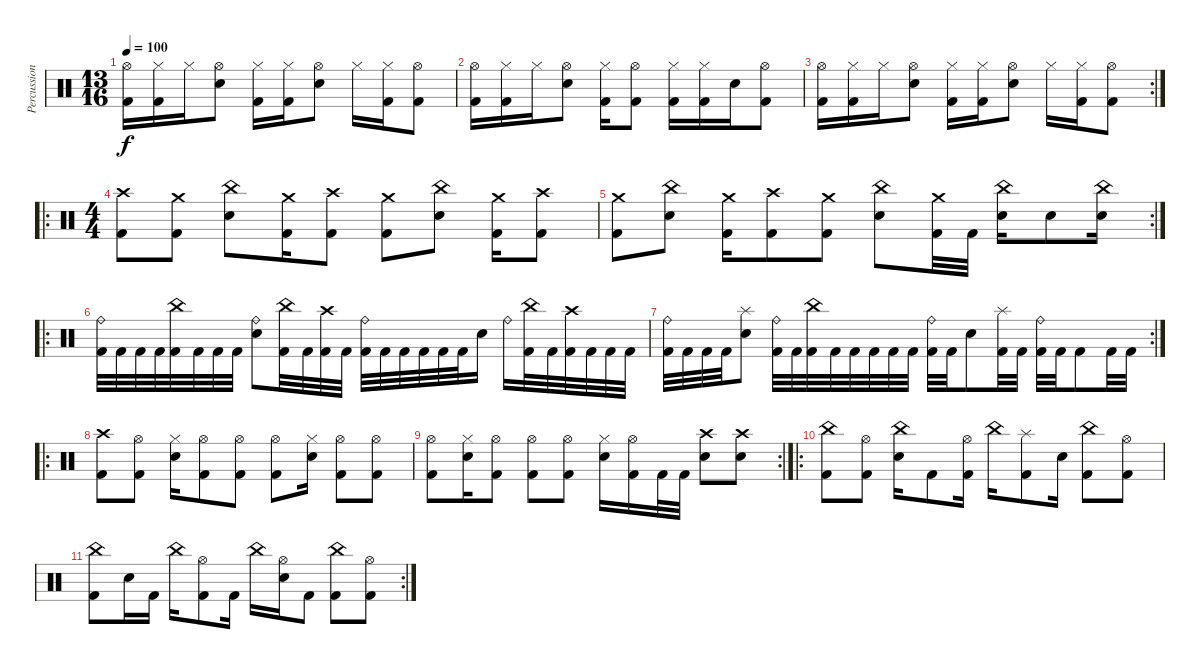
\track ("Percussions" "Percussion") {instrument percussion}
\staff {score}
\articulation defaults
\ts (13 16)
\tempo 100
\clef neutral
\ks c
("Hi-Hat (open)" "Kick (hit) 2").16{dy f} ("Hi-Hat (closed)" "Kick (hit) 2").16 "Hi-Hat (closed)".16 ("Hi-Hat (open)" "Electric Snare (hit)").8 ("Hi-Hat (closed)" "Kick (hit) 2").16 ("Hi-Hat (closed)" "Kick (hit) 2").16 ("Hi-Hat (open)" "Electric Snare (hit)").8 "Hi-Hat (closed)".16 ("Hi-Hat (closed)" "Kick (hit) 2").16 ("Hi-Hat (open)" "Kick (hit) 2").8 |
("Hi-Hat (open)" "Kick (hit) 2").16 ("Hi-Hat (closed)" "Kick (hit) 2").16 "Hi-Hat (closed)".16 ("Hi-Hat (open)" "Electric Snare (hit)").8 ("Hi-Hat (closed)" "Kick (hit) 2").16 ("Hi-Hat (open)" "Kick (hit) 2").8 ("Hi-Hat (closed)" "Kick (hit) 2").16 ("Hi-Hat (closed)" "Kick (hit) 2").16 "Electric Snare (hit)".16 ("Hi-Hat (open)" "Kick (hit) 2").8 |
\rc 2
("Hi-Hat (open)" "Kick (hit) 2").16 ("Hi-Hat (closed)" "Kick (hit) 2").16 "Hi-Hat (closed)".16 ("Hi-Hat (open)" "Electric Snare (hit)").8 ("Hi-Hat (closed)" "Kick (hit) 2").16 ("Hi-Hat (closed)" "Kick (hit) 2").16 ("Hi-Hat (open)" "Electric Snare (hit)").8 "Hi-Hat (closed)".16 ("Hi-Hat (closed)" "Kick (hit) 2").16 ("Hi-Hat (open)" "Kick (hit) 2").8 |
\ro
\ts (4 4)
("Crash high (hit)" "Kick (hit) 2").8 ("Crash medium (hit)" "Kick (hit) 2").8 ("China (hit)" "Electric Snare (hit)").8 ("Crash medium (hit)" "Kick (hit) 2").16 ("Crash high (hit)" "Kick (hit) 2").8 ("Crash medium (hit)" "Kick (hit) 2").8 ("China (hit)" "Electric Snare (hit)").8 ("Crash medium (hit)" "Kick (hit) 2").16 ("Crash high (hit)" "Kick (hit) 2").8 |
\rc 2
("Crash medium (hit)" "Kick (hit) 2").8 ("China (hit)" "Electric Snare (hit)").8 ("Crash medium (hit)" "Kick (hit) 2").16 ("Crash high (hit)" "Kick (hit) 2").8 ("Crash medium (hit)" "Kick (hit) 2").8 ("China (hit)" "Electric Snare (hit)").8 ("Crash medium (hit)" "Kick (hit) 2").32 "Kick (hit) 2".32 ("China (hit)" "Electric Snare (hit)").16 "Electric Snare (hit)".8 ("China (hit)" "Electric Snare (hit)").16 |
\ro
("Ride (bell)" "Kick (hit) 2").32 "Kick (hit) 2".32 "Kick (hit) 2".32 "Kick (hit) 2".32 ("China (hit)" "Kick (hit) 2").32 "Kick (hit) 2".32 "Kick (hit) 2".32 "Kick (hit) 2".32 ("Ride (bell)" "Electric Snare (hit)").8 ("China (hit)" "Kick (hit) 2").32 "Kick (hit) 2".32 ("Crash high (hit)" "Kick (hit) 2").32 "Kick (hit) 2".32 ("Ride (bell)" "Kick (hit) 2").32 "Kick (hit) 2".32 "Kick (hit) 2".32 "Kick (hit) 2".32 "Kick (hit) 2".32 "Kick (hit) 2".32 "Electric Snare (hit)".16 "Ride (bell)".16 ("China (hit)" "Kick (hit) 2").32 "Kick (hit) 2".32 ("Crash high (hit)" "Kick (hit) 2").32 "Kick (hit) 2".32 "Kick (hit) 2".32 "Kick (hit) 2".32 |
\rc 2
("Ride (bell)" "Kick (hit) 2").32 "Kick (hit) 2".32 "Kick (hit) 2".32 "Kick (hit) 2".32 ("Splash (hit)" "Electric Snare (hit)").8 ("Ride (bell)" "Kick (hit) 2").32 "Kick (hit) 2".32 ("China (hit)" "Kick (hit) 2").32 "Kick (hit) 2".32 "Kick (hit) 2".32 "Kick (hit) 2".32 "Kick (hit) 2".32 "Kick (hit) 2".32 ("Ride (bell)" "Kick (hit) 2").32 "Kick (hit) 2".32 "Electric Snare (hit)".8 ("Splash (hit)" "Kick (hit) 2").32 "Kick (hit) 2".32 ("Ride (bell)" "Kick (hit) 2").32 "Kick (hit) 2".32 "Kick (hit) 2".8 "Kick (hit) 2".32 "Kick (hit) 2".32 |
\ro
("Crash high (hit)" "Kick (hit) 2").8 ("Hi-Hat (open)" "Kick (hit) 2").8 ("Hi-Hat (closed)" "Electric Snare (hit)").16 ("Hi-Hat (open)" "Kick (hit) 2").8 ("Hi-Hat (open)" "Kick (hit) 2").8 ("Hi-Hat (open)" "Kick (hit) 2").8 ("Hi-Hat (closed)" "Electric Snare (hit)").16 ("Hi-Hat (open)" "Kick (hit) 2").8 ("Hi-Hat (open)" "Kick (hit) 2").8 |
\rc 2
("Hi-Hat (open)" "Kick (hit) 2").8 ("Hi-Hat (closed)" "Electric Snare (hit)").16 ("Hi-Hat (open)" "Kick (hit) 2").8 ("Hi-Hat (open)" "Kick (hit) 2").8 ("Hi-Hat (open)" "Kick (hit) 2").8 ("Hi-Hat (closed)" "Electric Snare (hit)").16 ("Hi-Hat (open)" "Kick (hit) 2").16 "Kick (hit) 2".32 "Kick (hit) 2".32 ("Crash high (hit)" "Electric Snare (hit)").8 ("Crash high (hit)" "Electric Snare (hit)").8 |
\ro
("China (hit)" "Kick (hit) 2").8 ("Hi-Hat (open)" "Kick (hit) 2").8 ("China (hit)" "Electric Snare (hit)").16 "Kick (hit) 2".8 ("Hi-Hat (open)" "Kick (hit) 2").16 "China (hit)".16 ("Splash (hit)" "Kick (hit) 2").8 "Electric Snare (hit)".16 ("China (hit)" "Kick (hit) 2").8 ("Hi-Hat (open)" "Kick (hit) 2").8 |
\rc 2
("China (hit)" "Kick (hit) 2").8 "Electric Snare (hit)".16 "Kick (hit) 2".16 "China (hit)".16 ("Hi-Hat (open)" "Kick (hit) 2").8 "Kick (hit) 2".16 "China (hit)".16 ("Hi-Hat (open)" "Electric Snare (hit)").16 "Kick (hit) 2".8 ("China (hit)" "Kick (hit) 2").8 ("Hi-Hat (open)" "Kick (hit) 2").8
